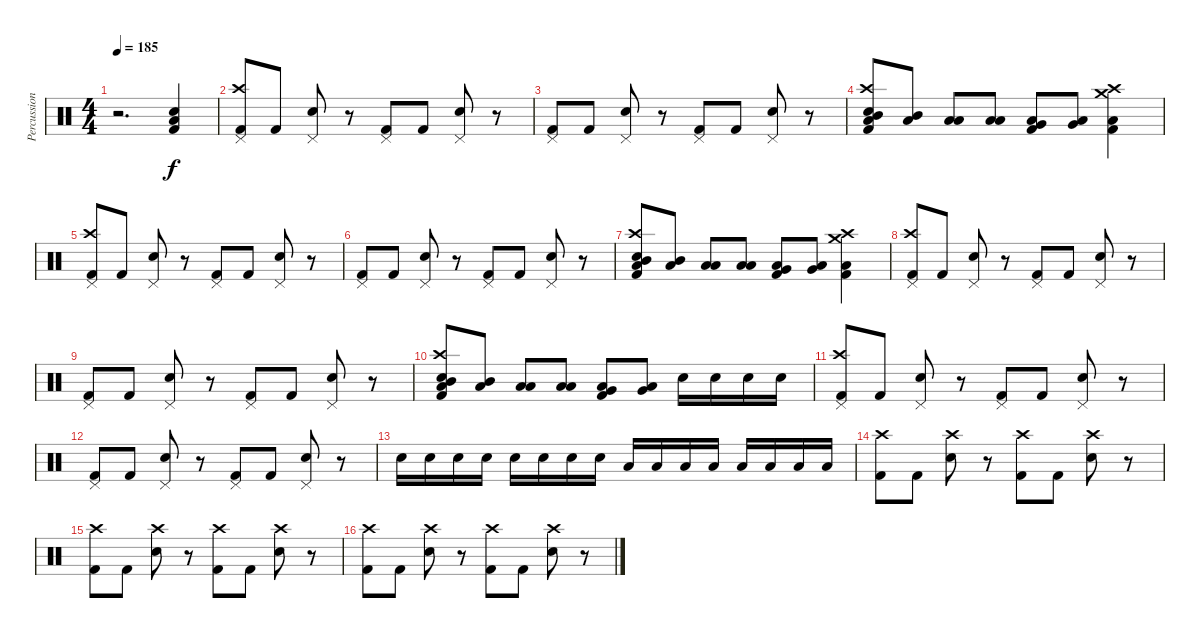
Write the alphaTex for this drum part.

\track ("Percussion" "Percussion") {instrument percussion}
\staff {score}
\articulation defaults
\ts (4 4)
\tempo 185
\clef neutral
\ks c
r.2{d dy f} ("Low Floor Tom (hit)" "Snare (hit) 2" "Kick (hit) 2").4 |
("Crash high (hit)" "Pedal Hi-Hat (hit)" "Kick (hit) 2").8 "Kick (hit) 2".8 ("Pedal Hi-Hat (hit)" "Snare (hit) 2").8 r.8 ("Pedal Hi-Hat (hit)" "Kick (hit) 2").8 "Kick (hit) 2".8 ("Pedal Hi-Hat (hit)" "Snare (hit) 2").8 r.8 |
("Pedal Hi-Hat (hit)" "Kick (hit) 2").8 "Kick (hit) 2".8 ("Pedal Hi-Hat (hit)" "Snare (hit) 2").8 r.8 ("Pedal Hi-Hat (hit)" "Kick (hit) 2").8 "Kick (hit) 2".8 ("Pedal Hi-Hat (hit)" "Snare (hit) 2").8 r.8 |
("Crash high (hit)" "Mid Tom (hit)" "Low Floor Tom (hit)" "Snare (hit) 2" "Kick (hit) 2").8 ("Mid Tom (hit)" "Low Floor Tom (hit)").8 ("Low Tom (hit)" "Low Floor Tom (hit)").8 ("Low Tom (hit)" "Low Floor Tom (hit)").8 ("Very Low Tom (hit)" "Low Floor Tom (hit)" "Kick (hit) 2").8 ("Very Low Tom (hit)" "Low Floor Tom (hit)").8 ("Crash medium (hit)" "Crash high (hit)" "Low Floor Tom (hit)" "Kick (hit) 2").4 |
("Crash high (hit)" "Pedal Hi-Hat (hit)" "Kick (hit) 2").8 "Kick (hit) 2".8 ("Pedal Hi-Hat (hit)" "Snare (hit) 2").8 r.8 ("Pedal Hi-Hat (hit)" "Kick (hit) 2").8 "Kick (hit) 2".8 ("Pedal Hi-Hat (hit)" "Snare (hit) 2").8 r.8 |
("Pedal Hi-Hat (hit)" "Kick (hit) 2").8 "Kick (hit) 2".8 ("Pedal Hi-Hat (hit)" "Snare (hit) 2").8 r.8 ("Pedal Hi-Hat (hit)" "Kick (hit) 2").8 "Kick (hit) 2".8 ("Pedal Hi-Hat (hit)" "Snare (hit) 2").8 r.8 |
("Crash high (hit)" "Mid Tom (hit)" "Low Floor Tom (hit)" "Snare (hit) 2" "Kick (hit) 2").8 ("Mid Tom (hit)" "Low Floor Tom (hit)").8 ("Low Tom (hit)" "Low Floor Tom (hit)").8 ("Low Tom (hit)" "Low Floor Tom (hit)").8 ("Very Low Tom (hit)" "Low Floor Tom (hit)" "Kick (hit) 2").8 ("Very Low Tom (hit)" "Low Floor Tom (hit)").8 ("Crash medium (hit)" "Crash high (hit)" "Low Floor Tom (hit)" "Kick (hit) 2").4 |
("Crash high (hit)" "Pedal Hi-Hat (hit)" "Kick (hit) 2").8 "Kick (hit) 2".8 ("Pedal Hi-Hat (hit)" "Snare (hit) 2").8 r.8 ("Pedal Hi-Hat (hit)" "Kick (hit) 2").8 "Kick (hit) 2".8 ("Pedal Hi-Hat (hit)" "Snare (hit) 2").8 r.8 |
("Pedal Hi-Hat (hit)" "Kick (hit) 2").8 "Kick (hit) 2".8 ("Pedal Hi-Hat (hit)" "Snare (hit) 2").8 r.8 ("Pedal Hi-Hat (hit)" "Kick (hit) 2").8 "Kick (hit) 2".8 ("Pedal Hi-Hat (hit)" "Snare (hit) 2").8 r.8 |
("Crash high (hit)" "Mid Tom (hit)" "Low Floor Tom (hit)" "Snare (hit) 2" "Kick (hit) 2").8 ("Mid Tom (hit)" "Low Floor Tom (hit)").8 ("Low Tom (hit)" "Low Floor Tom (hit)").8 ("Low Tom (hit)" "Low Floor Tom (hit)").8 ("Very Low Tom (hit)" "Low Floor Tom (hit)" "Kick (hit) 2").8 ("Very Low Tom (hit)" "Low Floor Tom (hit)").8 "Snare (hit) 2".16 "Snare (hit) 2".16 "Snare (hit) 2".16 "Snare (hit) 2".16 |
("Crash high (hit)" "Pedal Hi-Hat (hit)" "Kick (hit) 2").8 "Kick (hit) 2".8 ("Pedal Hi-Hat (hit)" "Snare (hit) 2").8 r.8 ("Pedal Hi-Hat (hit)" "Kick (hit) 2").8 "Kick (hit) 2".8 ("Pedal Hi-Hat (hit)" "Snare (hit) 2").8 r.8 |
("Pedal Hi-Hat (hit)" "Kick (hit) 2").8 "Kick (hit) 2".8 ("Pedal Hi-Hat (hit)" "Snare (hit) 2").8 r.8 ("Pedal Hi-Hat (hit)" "Kick (hit) 2").8 "Kick (hit) 2".8 ("Pedal Hi-Hat (hit)" "Snare (hit) 2").8 r.8 |
"Snare (hit) 2".16 "Snare (hit) 2".16 "Snare (hit) 2".16 "Snare (hit) 2".16 "Snare (hit) 2".16 "Snare (hit) 2".16 "Snare (hit) 2".16 "Snare (hit) 2".16 "Low Floor Tom (hit)".16 "Low Floor Tom (hit)".16 "Low Floor Tom (hit)".16 "Low Floor Tom (hit)".16 "Low Floor Tom (hit)".16 "Low Floor Tom (hit)".16 "Low Floor Tom (hit)".16 "Low Floor Tom (hit)".16 |
("Crash high (hit)" "Kick (hit) 2").8 "Kick (hit) 2".8 ("Crash high (hit)" "Snare (hit) 2").8 r.8 ("Crash high (hit)" "Kick (hit) 2").8 "Kick (hit) 2".8 ("Crash high (hit)" "Snare (hit) 2").8 r.8 |
("Crash high (hit)" "Kick (hit) 2").8 "Kick (hit) 2".8 ("Crash high (hit)" "Snare (hit) 2").8 r.8 ("Crash high (hit)" "Kick (hit) 2").8 "Kick (hit) 2".8 ("Crash high (hit)" "Snare (hit) 2").8 r.8 |
("Crash high (hit)" "Kick (hit) 2").8 "Kick (hit) 2".8 ("Crash high (hit)" "Snare (hit) 2").8 r.8 ("Crash high (hit)" "Kick (hit) 2").8 "Kick (hit) 2".8 ("Crash high (hit)" "Snare (hit) 2").8 r.8
